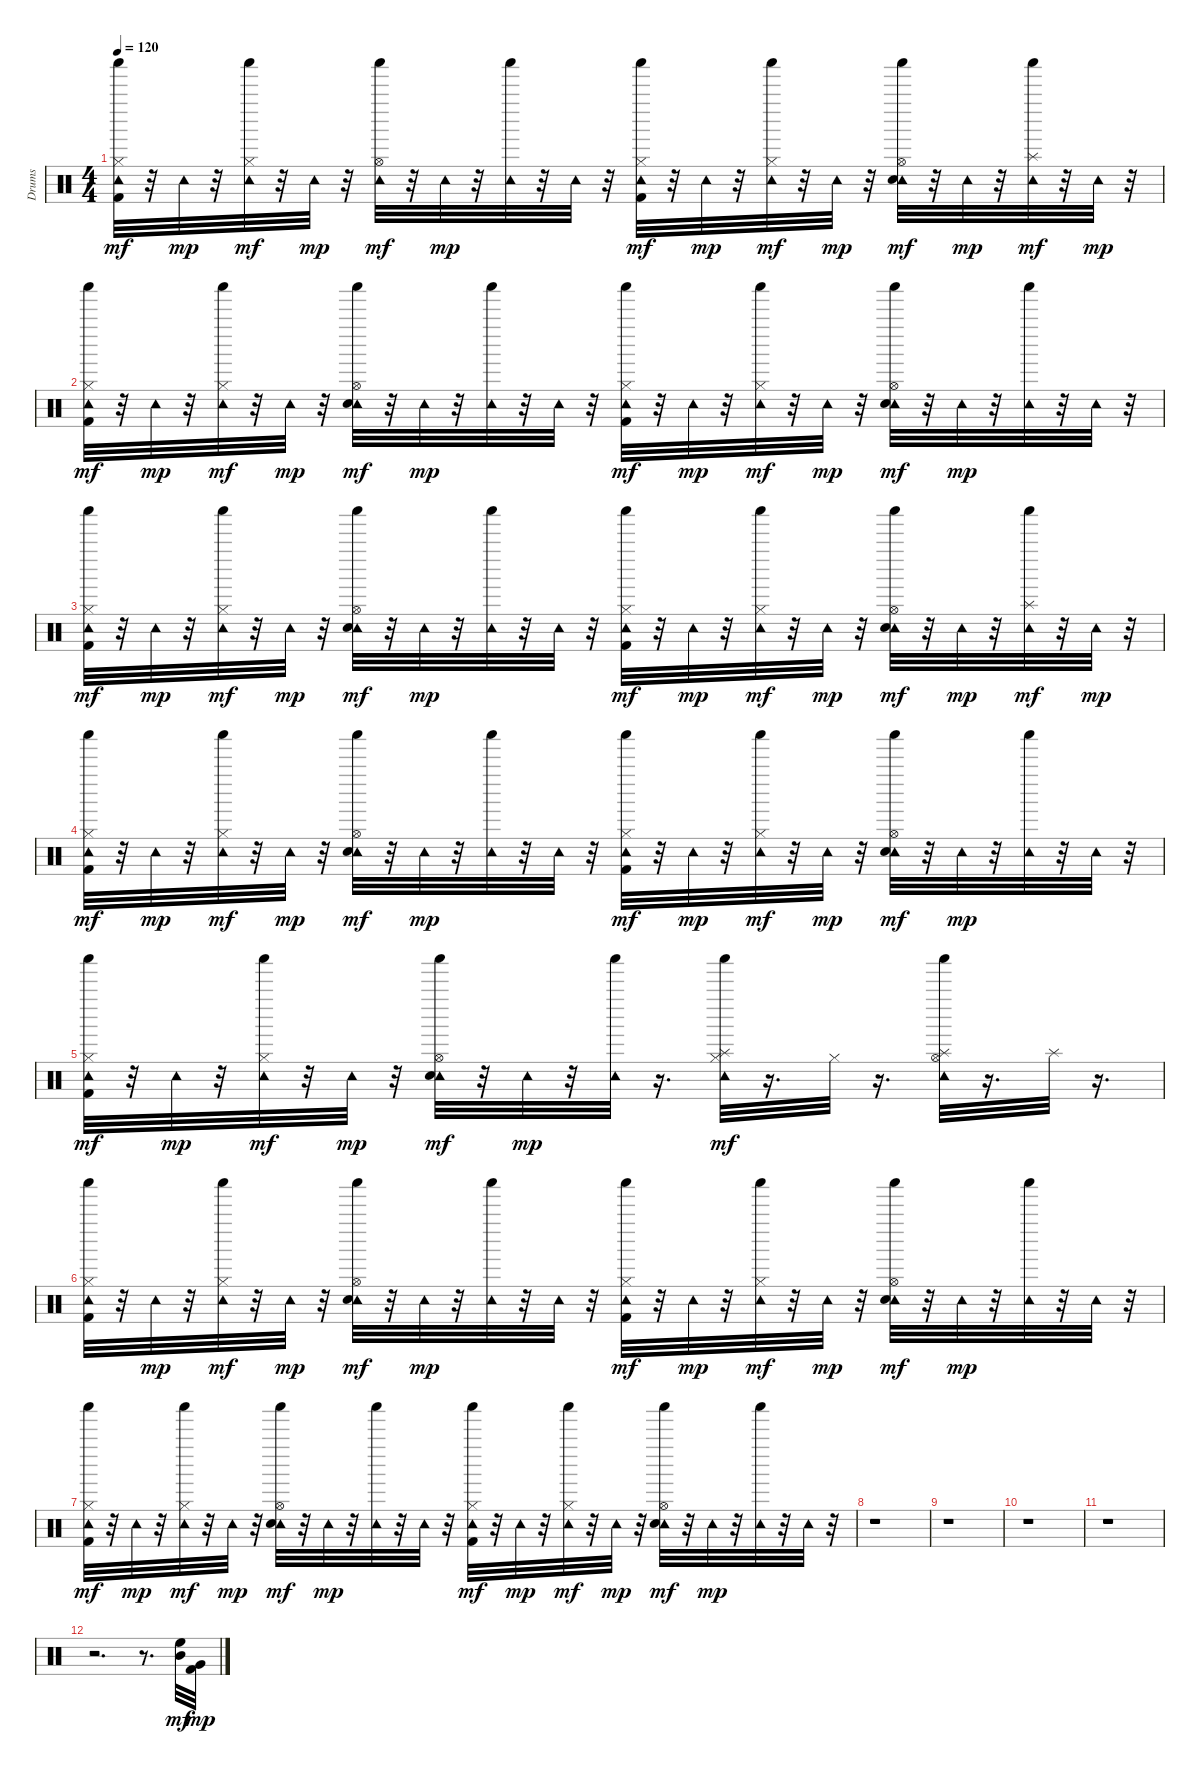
\track ("Drums" "Drums") {instrument percussion}
\staff {score}
\articulation defaults
\ts (4 4)
\tempo 120
\clef neutral
\ks c
("Kick (hit) 2" "Tambourine (hit)" "Shaker (hit)" "Hi-Hat (closed)").32{dy mf} r.32 "Tambourine (hit)".32{dy mp} r.32 ("Tambourine (hit)" "Shaker (hit)" "Hi-Hat (closed)").32{dy mf} r.32 "Tambourine (hit)".32{dy mp} r.32 ("Tambourine (hit)" "Shaker (hit)" "Hi-Hat (open)").32{dy mf} r.32 "Tambourine (hit)".32{dy mp} r.32 ("Tambourine (hit)" "Shaker (hit)").32 r.32 "Tambourine (hit)".32 r.32 ("Kick (hit) 2" "Tambourine (hit)" "Shaker (hit)" "Hi-Hat (closed)").32{dy mf} r.32 "Tambourine (hit)".32{dy mp} r.32 ("Tambourine (hit)" "Shaker (hit)" "Hi-Hat (closed)").32{dy mf} r.32 "Tambourine (hit)".32{dy mp} r.32 ("Tambourine (hit)" "Shaker (hit)" "Snare (hit) 2" "Hi-Hat (open)").32{dy mf} r.32 "Tambourine (hit)".32{dy mp} r.32 ("Tambourine (hit)" "Shaker (hit)" "Splash (hit)").32{dy mf} r.32 "Tambourine (hit)".32{dy mp} r.32 |
("Kick (hit) 2" "Tambourine (hit)" "Shaker (hit)" "Hi-Hat (closed)").32{dy mf} r.32 "Tambourine (hit)".32{dy mp} r.32 ("Tambourine (hit)" "Shaker (hit)" "Hi-Hat (closed)").32{dy mf} r.32 "Tambourine (hit)".32{dy mp} r.32 ("Tambourine (hit)" "Shaker (hit)" "Snare (hit) 2" "Hi-Hat (open)").32{dy mf} r.32 "Tambourine (hit)".32{dy mp} r.32 ("Tambourine (hit)" "Shaker (hit)").32 r.32 "Tambourine (hit)".32 r.32 ("Kick (hit) 2" "Tambourine (hit)" "Shaker (hit)" "Hi-Hat (closed)").32{dy mf} r.32 "Tambourine (hit)".32{dy mp} r.32 ("Tambourine (hit)" "Shaker (hit)" "Hi-Hat (closed)").32{dy mf} r.32 "Tambourine (hit)".32{dy mp} r.32 ("Tambourine (hit)" "Shaker (hit)" "Snare (hit) 2" "Hi-Hat (open)").32{dy mf} r.32 "Tambourine (hit)".32{dy mp} r.32 ("Tambourine (hit)" "Shaker (hit)").32 r.32 "Tambourine (hit)".32 r.32 |
("Kick (hit) 2" "Tambourine (hit)" "Shaker (hit)" "Hi-Hat (closed)").32{dy mf} r.32 "Tambourine (hit)".32{dy mp} r.32 ("Tambourine (hit)" "Shaker (hit)" "Hi-Hat (closed)").32{dy mf} r.32 "Tambourine (hit)".32{dy mp} r.32 ("Tambourine (hit)" "Shaker (hit)" "Snare (hit) 2" "Hi-Hat (open)").32{dy mf} r.32 "Tambourine (hit)".32{dy mp} r.32 ("Tambourine (hit)" "Shaker (hit)").32 r.32 "Tambourine (hit)".32 r.32 ("Kick (hit) 2" "Tambourine (hit)" "Shaker (hit)" "Hi-Hat (closed)").32{dy mf} r.32 "Tambourine (hit)".32{dy mp} r.32 ("Tambourine (hit)" "Shaker (hit)" "Hi-Hat (closed)").32{dy mf} r.32 "Tambourine (hit)".32{dy mp} r.32 ("Tambourine (hit)" "Shaker (hit)" "Snare (hit) 2" "Hi-Hat (open)").32{dy mf} r.32 "Tambourine (hit)".32{dy mp} r.32 ("Tambourine (hit)" "Shaker (hit)" "Splash (hit)").32{dy mf} r.32 "Tambourine (hit)".32{dy mp} r.32 |
("Kick (hit) 2" "Tambourine (hit)" "Shaker (hit)" "Hi-Hat (closed)").32{dy mf} r.32 "Tambourine (hit)".32{dy mp} r.32 ("Tambourine (hit)" "Shaker (hit)" "Hi-Hat (closed)").32{dy mf} r.32 "Tambourine (hit)".32{dy mp} r.32 ("Tambourine (hit)" "Shaker (hit)" "Snare (hit) 2" "Hi-Hat (open)").32{dy mf} r.32 "Tambourine (hit)".32{dy mp} r.32 ("Tambourine (hit)" "Shaker (hit)").32 r.32 "Tambourine (hit)".32 r.32 ("Kick (hit) 2" "Tambourine (hit)" "Shaker (hit)" "Hi-Hat (closed)").32{dy mf} r.32 "Tambourine (hit)".32{dy mp} r.32 ("Tambourine (hit)" "Shaker (hit)" "Hi-Hat (closed)").32{dy mf} r.32 "Tambourine (hit)".32{dy mp} r.32 ("Tambourine (hit)" "Shaker (hit)" "Snare (hit) 2" "Hi-Hat (open)").32{dy mf} r.32 "Tambourine (hit)".32{dy mp} r.32 ("Tambourine (hit)" "Shaker (hit)").32 r.32 "Tambourine (hit)".32 r.32 |
("Kick (hit) 2" "Tambourine (hit)" "Shaker (hit)" "Hi-Hat (closed)").32{dy mf} r.32 "Tambourine (hit)".32{dy mp} r.32 ("Tambourine (hit)" "Shaker (hit)" "Hi-Hat (closed)").32{dy mf} r.32 "Tambourine (hit)".32{dy mp} r.32 ("Tambourine (hit)" "Shaker (hit)" "Snare (hit) 2" "Hi-Hat (open)").32{dy mf} r.32 "Tambourine (hit)".32{dy mp} r.32 ("Tambourine (hit)" "Shaker (hit)").32 r.16{d} ("Tambourine (hit)" "Shaker (hit)" "Splash (hit)" "Hi-Hat (closed)").32{dy mf} r.16{d} "Hi-Hat (closed)".32 r.16{d} ("Tambourine (hit)" "Shaker (hit)" "Splash (hit)" "Hi-Hat (open)").32 r.16{d} "Splash (hit)".32 r.16{d} |
("Kick (hit) 2" "Tambourine (hit)" "Shaker (hit)" "Hi-Hat (closed)").32 r.32 "Tambourine (hit)".32{dy mp} r.32 ("Tambourine (hit)" "Shaker (hit)" "Hi-Hat (closed)").32{dy mf} r.32 "Tambourine (hit)".32{dy mp} r.32 ("Tambourine (hit)" "Shaker (hit)" "Snare (hit) 2" "Hi-Hat (open)").32{dy mf} r.32 "Tambourine (hit)".32{dy mp} r.32 ("Tambourine (hit)" "Shaker (hit)").32 r.32 "Tambourine (hit)".32 r.32 ("Kick (hit) 2" "Tambourine (hit)" "Shaker (hit)" "Hi-Hat (closed)").32{dy mf} r.32 "Tambourine (hit)".32{dy mp} r.32 ("Tambourine (hit)" "Shaker (hit)" "Hi-Hat (closed)").32{dy mf} r.32 "Tambourine (hit)".32{dy mp} r.32 ("Tambourine (hit)" "Shaker (hit)" "Snare (hit) 2" "Hi-Hat (open)").32{dy mf} r.32 "Tambourine (hit)".32{dy mp} r.32 ("Tambourine (hit)" "Shaker (hit)").32 r.32 "Tambourine (hit)".32 r.32 |
("Kick (hit) 2" "Tambourine (hit)" "Shaker (hit)" "Hi-Hat (closed)").32{dy mf} r.32 "Tambourine (hit)".32{dy mp} r.32 ("Tambourine (hit)" "Shaker (hit)" "Hi-Hat (closed)").32{dy mf} r.32 "Tambourine (hit)".32{dy mp} r.32 ("Tambourine (hit)" "Shaker (hit)" "Snare (hit) 2" "Hi-Hat (open)").32{dy mf} r.32 "Tambourine (hit)".32{dy mp} r.32 ("Tambourine (hit)" "Shaker (hit)").32 r.32 "Tambourine (hit)".32 r.32 ("Kick (hit) 2" "Tambourine (hit)" "Shaker (hit)" "Hi-Hat (closed)").32{dy mf} r.32 "Tambourine (hit)".32{dy mp} r.32 ("Tambourine (hit)" "Shaker (hit)" "Hi-Hat (closed)").32{dy mf} r.32 "Tambourine (hit)".32{dy mp} r.32 ("Tambourine (hit)" "Shaker (hit)" "Snare (hit) 2" "Hi-Hat (open)").32{dy mf} r.32 "Tambourine (hit)".32{dy mp} r.32 ("Tambourine (hit)" "Shaker (hit)").32 r.32 "Tambourine (hit)".32 r.32 |
r.1 |
r.1 |
r.1 |
r.1 |
r.2{d} r.8{d} ("High Floor Tom (hit)" "Mid Tom (hit)").32{dy mf} ("Very Low Tom (hit)" "Kick (hit) 2").32{dy mp}
